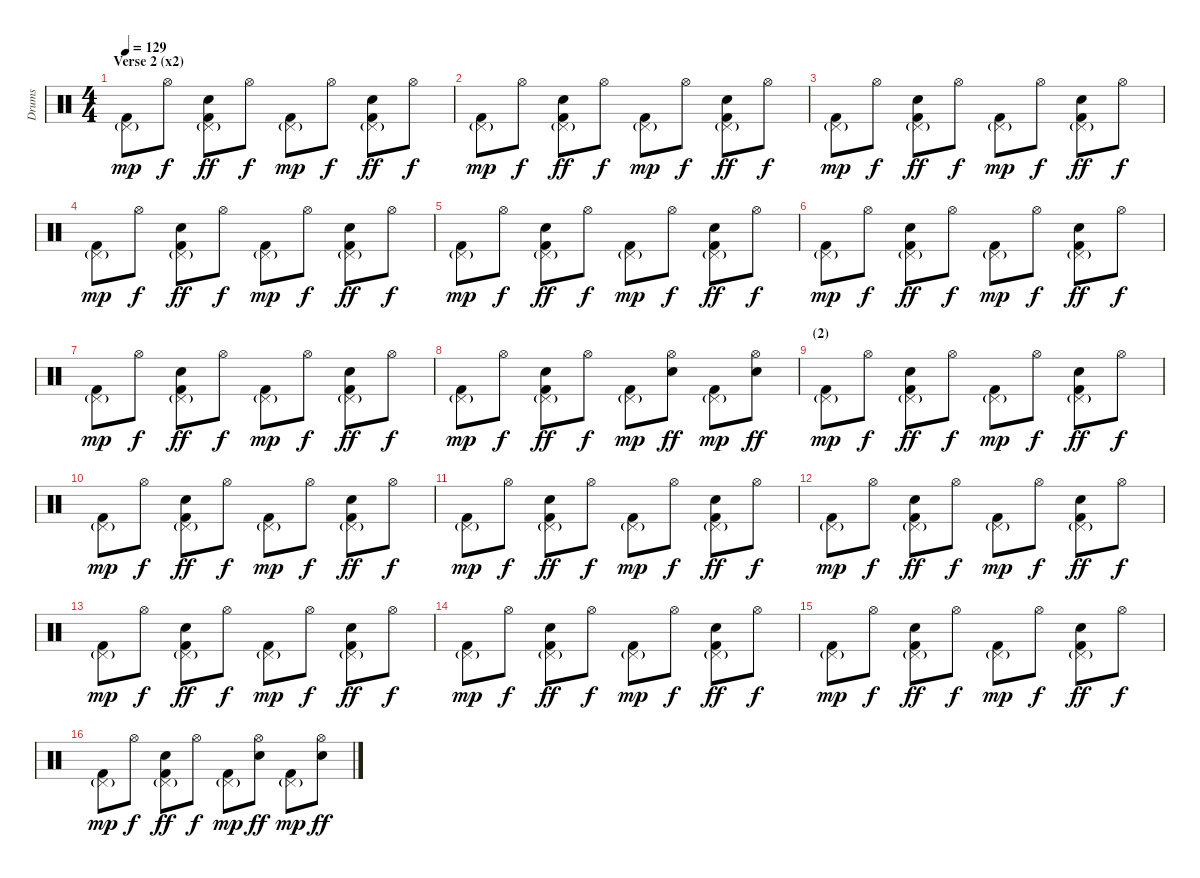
\track ("Drums" "Drums") {instrument percussion}
\staff {score}
\articulation defaults
\ts (4 4)
\section ("" "Verse 2 (x2)")
\tempo 129
\clef neutral
\ks c
("Pedal Hi-Hat (hit)"{g} "Kick (hit) 2").8{dy mp} "Hi-Hat (open)".8{dy f} ("Pedal Hi-Hat (hit)"{g} "Electric Snare (hit)" "Kick (hit) 2").8{dy ff} "Hi-Hat (open)".8{dy f} ("Pedal Hi-Hat (hit)"{g} "Kick (hit) 2").8{dy mp} "Hi-Hat (open)".8{dy f} ("Pedal Hi-Hat (hit)"{g} "Electric Snare (hit)" "Kick (hit) 2").8{dy ff} "Hi-Hat (open)".8{dy f} |
("Pedal Hi-Hat (hit)"{g} "Kick (hit) 2").8{dy mp} "Hi-Hat (open)".8{dy f} ("Pedal Hi-Hat (hit)"{g} "Electric Snare (hit)" "Kick (hit) 2").8{dy ff} "Hi-Hat (open)".8{dy f} ("Pedal Hi-Hat (hit)"{g} "Kick (hit) 2").8{dy mp} "Hi-Hat (open)".8{dy f} ("Pedal Hi-Hat (hit)"{g} "Electric Snare (hit)" "Kick (hit) 2").8{dy ff} "Hi-Hat (open)".8{dy f} |
("Pedal Hi-Hat (hit)"{g} "Kick (hit) 2").8{dy mp} "Hi-Hat (open)".8{dy f} ("Pedal Hi-Hat (hit)"{g} "Electric Snare (hit)" "Kick (hit) 2").8{dy ff} "Hi-Hat (open)".8{dy f} ("Pedal Hi-Hat (hit)"{g} "Kick (hit) 2").8{dy mp} "Hi-Hat (open)".8{dy f} ("Pedal Hi-Hat (hit)"{g} "Electric Snare (hit)" "Kick (hit) 2").8{dy ff} "Hi-Hat (open)".8{dy f} |
("Pedal Hi-Hat (hit)"{g} "Kick (hit) 2").8{dy mp} "Hi-Hat (open)".8{dy f} ("Pedal Hi-Hat (hit)"{g} "Electric Snare (hit)" "Kick (hit) 2").8{dy ff} "Hi-Hat (open)".8{dy f} ("Pedal Hi-Hat (hit)"{g} "Kick (hit) 2").8{dy mp} "Hi-Hat (open)".8{dy f} ("Pedal Hi-Hat (hit)"{g} "Electric Snare (hit)" "Kick (hit) 2").8{dy ff} "Hi-Hat (open)".8{dy f} |
("Pedal Hi-Hat (hit)"{g} "Kick (hit) 2").8{dy mp} "Hi-Hat (open)".8{dy f} ("Pedal Hi-Hat (hit)"{g} "Electric Snare (hit)" "Kick (hit) 2").8{dy ff} "Hi-Hat (open)".8{dy f} ("Pedal Hi-Hat (hit)"{g} "Kick (hit) 2").8{dy mp} "Hi-Hat (open)".8{dy f} ("Pedal Hi-Hat (hit)"{g} "Electric Snare (hit)" "Kick (hit) 2").8{dy ff} "Hi-Hat (open)".8{dy f} |
("Pedal Hi-Hat (hit)"{g} "Kick (hit) 2").8{dy mp} "Hi-Hat (open)".8{dy f} ("Pedal Hi-Hat (hit)"{g} "Electric Snare (hit)" "Kick (hit) 2").8{dy ff} "Hi-Hat (open)".8{dy f} ("Pedal Hi-Hat (hit)"{g} "Kick (hit) 2").8{dy mp} "Hi-Hat (open)".8{dy f} ("Pedal Hi-Hat (hit)"{g} "Electric Snare (hit)" "Kick (hit) 2").8{dy ff} "Hi-Hat (open)".8{dy f} |
("Pedal Hi-Hat (hit)"{g} "Kick (hit) 2").8{dy mp} "Hi-Hat (open)".8{dy f} ("Pedal Hi-Hat (hit)"{g} "Electric Snare (hit)" "Kick (hit) 2").8{dy ff} "Hi-Hat (open)".8{dy f} ("Pedal Hi-Hat (hit)"{g} "Kick (hit) 2").8{dy mp} "Hi-Hat (open)".8{dy f} ("Pedal Hi-Hat (hit)"{g} "Electric Snare (hit)" "Kick (hit) 2").8{dy ff} "Hi-Hat (open)".8{dy f} |
("Pedal Hi-Hat (hit)"{g} "Kick (hit) 2").8{dy mp} "Hi-Hat (open)".8{dy f} ("Pedal Hi-Hat (hit)"{g} "Electric Snare (hit)" "Kick (hit) 2").8{dy ff} "Hi-Hat (open)".8{dy f} ("Pedal Hi-Hat (hit)"{g} "Kick (hit) 2").8{dy mp} ("Hi-Hat (open)" "Electric Snare (hit)").8{dy ff} ("Pedal Hi-Hat (hit)"{g} "Kick (hit) 2").8{dy mp} ("Hi-Hat (open)" "Electric Snare (hit)").8{dy ff} |
\section ("" "(2)")
("Pedal Hi-Hat (hit)"{g} "Kick (hit) 2").8{dy mp} "Hi-Hat (open)".8{dy f} ("Pedal Hi-Hat (hit)"{g} "Electric Snare (hit)" "Kick (hit) 2").8{dy ff} "Hi-Hat (open)".8{dy f} ("Pedal Hi-Hat (hit)"{g} "Kick (hit) 2").8{dy mp} "Hi-Hat (open)".8{dy f} ("Pedal Hi-Hat (hit)"{g} "Electric Snare (hit)" "Kick (hit) 2").8{dy ff} "Hi-Hat (open)".8{dy f} |
("Pedal Hi-Hat (hit)"{g} "Kick (hit) 2").8{dy mp} "Hi-Hat (open)".8{dy f} ("Pedal Hi-Hat (hit)"{g} "Electric Snare (hit)" "Kick (hit) 2").8{dy ff} "Hi-Hat (open)".8{dy f} ("Pedal Hi-Hat (hit)"{g} "Kick (hit) 2").8{dy mp} "Hi-Hat (open)".8{dy f} ("Pedal Hi-Hat (hit)"{g} "Electric Snare (hit)" "Kick (hit) 2").8{dy ff} "Hi-Hat (open)".8{dy f} |
("Pedal Hi-Hat (hit)"{g} "Kick (hit) 2").8{dy mp} "Hi-Hat (open)".8{dy f} ("Pedal Hi-Hat (hit)"{g} "Electric Snare (hit)" "Kick (hit) 2").8{dy ff} "Hi-Hat (open)".8{dy f} ("Pedal Hi-Hat (hit)"{g} "Kick (hit) 2").8{dy mp} "Hi-Hat (open)".8{dy f} ("Pedal Hi-Hat (hit)"{g} "Electric Snare (hit)" "Kick (hit) 2").8{dy ff} "Hi-Hat (open)".8{dy f} |
("Pedal Hi-Hat (hit)"{g} "Kick (hit) 2").8{dy mp} "Hi-Hat (open)".8{dy f} ("Pedal Hi-Hat (hit)"{g} "Electric Snare (hit)" "Kick (hit) 2").8{dy ff} "Hi-Hat (open)".8{dy f} ("Pedal Hi-Hat (hit)"{g} "Kick (hit) 2").8{dy mp} "Hi-Hat (open)".8{dy f} ("Pedal Hi-Hat (hit)"{g} "Electric Snare (hit)" "Kick (hit) 2").8{dy ff} "Hi-Hat (open)".8{dy f} |
("Pedal Hi-Hat (hit)"{g} "Kick (hit) 2").8{dy mp} "Hi-Hat (open)".8{dy f} ("Pedal Hi-Hat (hit)"{g} "Electric Snare (hit)" "Kick (hit) 2").8{dy ff} "Hi-Hat (open)".8{dy f} ("Pedal Hi-Hat (hit)"{g} "Kick (hit) 2").8{dy mp} "Hi-Hat (open)".8{dy f} ("Pedal Hi-Hat (hit)"{g} "Electric Snare (hit)" "Kick (hit) 2").8{dy ff} "Hi-Hat (open)".8{dy f} |
("Pedal Hi-Hat (hit)"{g} "Kick (hit) 2").8{dy mp} "Hi-Hat (open)".8{dy f} ("Pedal Hi-Hat (hit)"{g} "Electric Snare (hit)" "Kick (hit) 2").8{dy ff} "Hi-Hat (open)".8{dy f} ("Pedal Hi-Hat (hit)"{g} "Kick (hit) 2").8{dy mp} "Hi-Hat (open)".8{dy f} ("Pedal Hi-Hat (hit)"{g} "Electric Snare (hit)" "Kick (hit) 2").8{dy ff} "Hi-Hat (open)".8{dy f} |
("Pedal Hi-Hat (hit)"{g} "Kick (hit) 2").8{dy mp} "Hi-Hat (open)".8{dy f} ("Pedal Hi-Hat (hit)"{g} "Electric Snare (hit)" "Kick (hit) 2").8{dy ff} "Hi-Hat (open)".8{dy f} ("Pedal Hi-Hat (hit)"{g} "Kick (hit) 2").8{dy mp} "Hi-Hat (open)".8{dy f} ("Pedal Hi-Hat (hit)"{g} "Electric Snare (hit)" "Kick (hit) 2").8{dy ff} "Hi-Hat (open)".8{dy f} |
("Pedal Hi-Hat (hit)"{g} "Kick (hit) 2").8{dy mp} "Hi-Hat (open)".8{dy f} ("Pedal Hi-Hat (hit)"{g} "Electric Snare (hit)" "Kick (hit) 2").8{dy ff} "Hi-Hat (open)".8{dy f} ("Pedal Hi-Hat (hit)"{g} "Kick (hit) 2").8{dy mp} ("Hi-Hat (open)" "Electric Snare (hit)").8{dy ff} ("Pedal Hi-Hat (hit)"{g} "Kick (hit) 2").8{dy mp} ("Hi-Hat (open)" "Electric Snare (hit)").8{dy ff}
